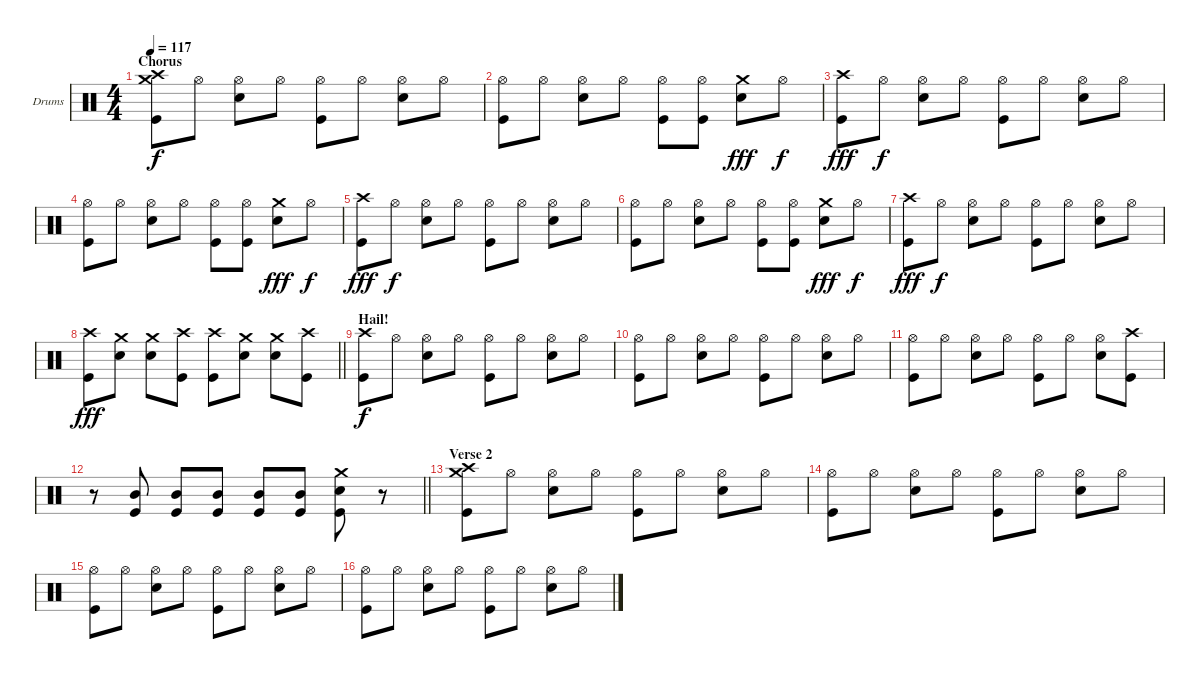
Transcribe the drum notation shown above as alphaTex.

\bracketExtendMode groupsimilarinstruments
\firstSystemTrackNameOrientation horizontal
\otherSystemsTrackNameOrientation horizontal
\track ("Drumkit" "Drums") {instrument percussion}
\staff {score}
\articulation defaults
\ts (4 4)
\section ("" "Chorus")
\tempo 117
\clef neutral
\ks c
("Crash medium (hit)" "Crash high (hit)" "Kick (hit)").8{dy f} "Hi-Hat (open)".8 ("Hi-Hat (open)" "Snare (hit) 2").8 "Hi-Hat (open)".8 ("Hi-Hat (open)" "Kick (hit)").8 "Hi-Hat (open)".8 ("Hi-Hat (open)" "Snare (hit) 2").8 "Hi-Hat (open)".8 |
("Hi-Hat (open)" "Kick (hit)").8 "Hi-Hat (open)".8 ("Hi-Hat (open)" "Snare (hit) 2").8 "Hi-Hat (open)".8 ("Hi-Hat (open)" "Kick (hit)").8 ("Hi-Hat (open)" "Kick (hit)").8 ("Crash medium (hit)" "Snare (hit) 2").8{dy fff} "Hi-Hat (open)".8{dy f} |
("Crash high (hit)" "Kick (hit)").8{dy fff} "Hi-Hat (open)".8{dy f} ("Hi-Hat (open)" "Snare (hit) 2").8 "Hi-Hat (open)".8 ("Hi-Hat (open)" "Kick (hit)").8 "Hi-Hat (open)".8 ("Hi-Hat (open)" "Snare (hit) 2").8 "Hi-Hat (open)".8 |
("Hi-Hat (open)" "Kick (hit)").8 "Hi-Hat (open)".8 ("Hi-Hat (open)" "Snare (hit) 2").8 "Hi-Hat (open)".8 ("Hi-Hat (open)" "Kick (hit)").8 ("Hi-Hat (open)" "Kick (hit)").8 ("Crash medium (hit)" "Snare (hit) 2").8{dy fff} "Hi-Hat (open)".8{dy f} |
("Crash high (hit)" "Kick (hit)").8{dy fff} "Hi-Hat (open)".8{dy f} ("Hi-Hat (open)" "Snare (hit) 2").8 "Hi-Hat (open)".8 ("Hi-Hat (open)" "Kick (hit)").8 "Hi-Hat (open)".8 ("Hi-Hat (open)" "Snare (hit) 2").8 "Hi-Hat (open)".8 |
("Hi-Hat (open)" "Kick (hit)").8 "Hi-Hat (open)".8 ("Hi-Hat (open)" "Snare (hit) 2").8 "Hi-Hat (open)".8 ("Hi-Hat (open)" "Kick (hit)").8 ("Hi-Hat (open)" "Kick (hit)").8 ("Crash medium (hit)" "Snare (hit) 2").8{dy fff} "Hi-Hat (open)".8{dy f} |
("Crash high (hit)" "Kick (hit)").8{dy fff} "Hi-Hat (open)".8{dy f} ("Hi-Hat (open)" "Snare (hit) 2").8 "Hi-Hat (open)".8 ("Hi-Hat (open)" "Kick (hit)").8 "Hi-Hat (open)".8 ("Hi-Hat (open)" "Snare (hit) 2").8 "Hi-Hat (open)".8 |
\barLineRight lightlight
("Crash high (hit)" "Kick (hit)").8{dy fff} ("Crash medium (hit)" "Snare (hit) 2").8 ("Crash medium (hit)" "Snare (hit) 2").8 ("Crash high (hit)" "Kick (hit)").8 ("Crash high (hit)" "Kick (hit)").8 ("Crash medium (hit)" "Snare (hit) 2").8 ("Crash medium (hit)" "Snare (hit) 2").8 ("Crash high (hit)" "Kick (hit)").8 |
\section ("" "Hail!")
("Crash high (hit)" "Kick (hit)").8{dy f} "Hi-Hat (open)".8 ("Hi-Hat (open)" "Snare (hit) 2").8 "Hi-Hat (open)".8 ("Hi-Hat (open)" "Kick (hit)").8 "Hi-Hat (open)".8 ("Hi-Hat (open)" "Snare (hit) 2").8 "Hi-Hat (open)".8 |
("Hi-Hat (open)" "Kick (hit)").8 "Hi-Hat (open)".8 ("Hi-Hat (open)" "Snare (hit) 2").8 "Hi-Hat (open)".8 ("Hi-Hat (open)" "Kick (hit)").8 "Hi-Hat (open)".8 ("Hi-Hat (open)" "Snare (hit) 2").8 "Hi-Hat (open)".8 |
("Hi-Hat (open)" "Kick (hit)").8 "Hi-Hat (open)".8 ("Hi-Hat (open)" "Snare (hit) 2").8 "Hi-Hat (open)".8 ("Hi-Hat (open)" "Kick (hit)").8 "Hi-Hat (open)".8 ("Hi-Hat (open)" "Snare (hit) 2").8 ("Crash high (hit)" "Kick (hit)").8 |
\barLineRight lightlight
r.8 ("Kick (hit)" "Mid Tom (hit)").8 ("Kick (hit)" "Mid Tom (hit)").8 ("Kick (hit)" "Mid Tom (hit)").8 ("Kick (hit)" "Mid Tom (hit)").8 ("Kick (hit)" "Mid Tom (hit)").8 ("Crash medium (hit)" "Kick (hit)" "Snare (hit) 2").8 r.8 |
\section ("" "Verse 2")
("Crash medium (hit)" "Crash high (hit)" "Kick (hit)").8 "Hi-Hat (open)".8 ("Hi-Hat (open)" "Snare (hit) 2").8 "Hi-Hat (open)".8 ("Hi-Hat (open)" "Kick (hit)").8 "Hi-Hat (open)".8 ("Hi-Hat (open)" "Snare (hit) 2").8 "Hi-Hat (open)".8 |
("Hi-Hat (open)" "Kick (hit)").8 "Hi-Hat (open)".8 ("Hi-Hat (open)" "Snare (hit) 2").8 "Hi-Hat (open)".8 ("Hi-Hat (open)" "Kick (hit)").8 "Hi-Hat (open)".8 ("Hi-Hat (open)" "Snare (hit) 2").8 "Hi-Hat (open)".8 |
("Hi-Hat (open)" "Kick (hit)").8 "Hi-Hat (open)".8 ("Hi-Hat (open)" "Snare (hit) 2").8 "Hi-Hat (open)".8 ("Hi-Hat (open)" "Kick (hit)").8 "Hi-Hat (open)".8 ("Hi-Hat (open)" "Snare (hit) 2").8 "Hi-Hat (open)".8 |
("Hi-Hat (open)" "Kick (hit)").8 "Hi-Hat (open)".8 ("Hi-Hat (open)" "Snare (hit) 2").8 "Hi-Hat (open)".8 ("Hi-Hat (open)" "Kick (hit)").8 "Hi-Hat (open)".8 ("Hi-Hat (open)" "Snare (hit) 2").8 "Hi-Hat (open)".8
